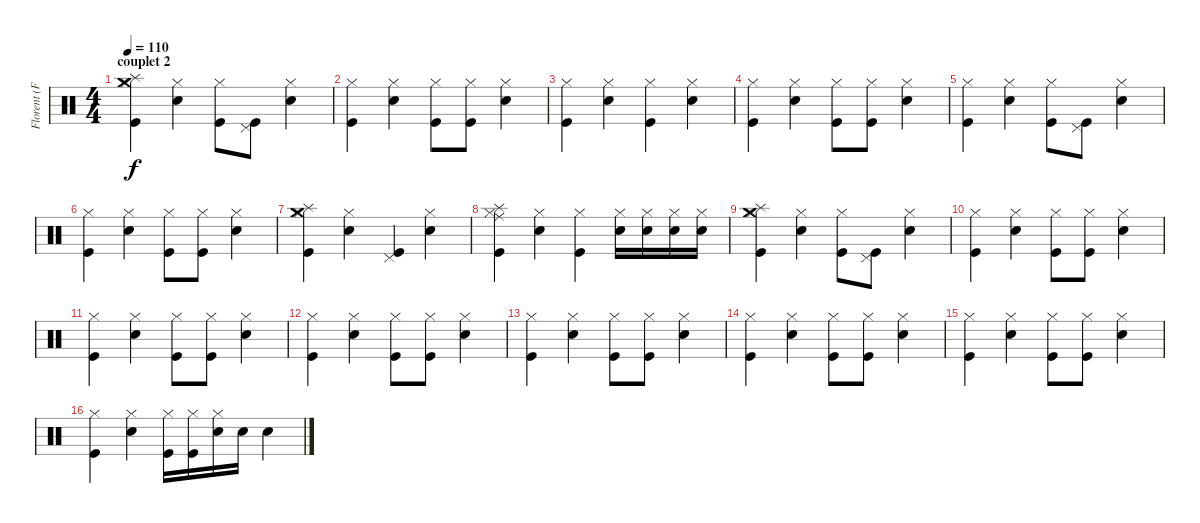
\track ("Florent (Fûts)" "Florent (F") {instrument percussion}
\staff {score}
\articulation defaults
\ts (4 4)
\section ("" "couplet 2")
\tempo 110
\clef neutral
\ks c
("Kick (hit)" "Crash medium (hit)" "Splash (hit)" "Hi-Hat (closed)").4{dy f} ("Snare (hit) 2" "Hi-Hat (closed)").4 ("Kick (hit)" "Hi-Hat (closed)").8 ("Kick (hit)" "Pedal Hi-Hat (hit)").8 ("Snare (hit) 2" "Hi-Hat (closed)").4 |
("Kick (hit)" "Hi-Hat (closed)").4 ("Snare (hit) 2" "Hi-Hat (closed)").4 ("Kick (hit)" "Hi-Hat (closed)").8 ("Kick (hit)" "Hi-Hat (closed)").8 ("Snare (hit) 2" "Hi-Hat (closed)").4 |
("Kick (hit)" "Hi-Hat (closed)").4 ("Snare (hit) 2" "Hi-Hat (closed)").4 ("Kick (hit)" "Hi-Hat (closed)").4 ("Snare (hit) 2" "Hi-Hat (closed)").4 |
("Kick (hit)" "Hi-Hat (closed)").4 ("Snare (hit) 2" "Hi-Hat (closed)").4 ("Kick (hit)" "Hi-Hat (closed)").8 ("Kick (hit)" "Hi-Hat (closed)").8 ("Snare (hit) 2" "Hi-Hat (closed)").4 |
("Kick (hit)" "Hi-Hat (closed)").4 ("Snare (hit) 2" "Hi-Hat (closed)").4 ("Kick (hit)" "Hi-Hat (closed)").8 ("Kick (hit)" "Pedal Hi-Hat (hit)").8 ("Snare (hit) 2" "Hi-Hat (closed)").4 |
("Kick (hit)" "Hi-Hat (closed)").4 ("Snare (hit) 2" "Hi-Hat (closed)").4 ("Kick (hit)" "Hi-Hat (closed)").8 ("Kick (hit)" "Hi-Hat (closed)").8 ("Snare (hit) 2" "Hi-Hat (closed)").4 |
("Kick (hit)" "Splash (hit)" "Crash medium (hit)" "Hi-Hat (closed)").4 ("Snare (hit) 2" "Hi-Hat (closed)").4 ("Kick (hit)" "Pedal Hi-Hat (hit)").4 ("Snare (hit) 2" "Hi-Hat (closed)").4 |
("Kick (hit)" "Splash (hit)" "Ride (middle)" "Hi-Hat (closed)").4 ("Snare (hit) 2" "Hi-Hat (closed)").4 ("Kick (hit)" "Hi-Hat (closed)").4 ("Snare (hit) 2" "Hi-Hat (closed)").16 ("Snare (hit) 2" "Hi-Hat (closed)").16 ("Snare (hit) 2" "Hi-Hat (closed)").16 ("Snare (hit) 2" "Hi-Hat (closed)").16 |
("Kick (hit)" "Splash (hit)" "Crash medium (hit)" "Hi-Hat (closed)").4 ("Snare (hit) 2" "Hi-Hat (closed)").4 ("Kick (hit)" "Hi-Hat (closed)").8 ("Kick (hit)" "Pedal Hi-Hat (hit)").8 ("Snare (hit) 2" "Hi-Hat (closed)").4 |
("Kick (hit)" "Hi-Hat (closed)").4 ("Snare (hit) 2" "Hi-Hat (closed)").4 ("Kick (hit)" "Hi-Hat (closed)").8 ("Kick (hit)" "Hi-Hat (closed)").8 ("Snare (hit) 2" "Hi-Hat (closed)").4 |
("Kick (hit)" "Hi-Hat (closed)").4 ("Snare (hit) 2" "Hi-Hat (closed)").4 ("Kick (hit)" "Hi-Hat (closed)").8 ("Kick (hit)" "Hi-Hat (closed)").8 ("Snare (hit) 2" "Hi-Hat (closed)").4 |
("Kick (hit)" "Hi-Hat (closed)").4 ("Snare (hit) 2" "Hi-Hat (closed)").4 ("Kick (hit)" "Hi-Hat (closed)").8 ("Kick (hit)" "Hi-Hat (closed)").8 ("Snare (hit) 2" "Hi-Hat (closed)").4 |
("Kick (hit)" "Hi-Hat (closed)").4 ("Snare (hit) 2" "Hi-Hat (closed)").4 ("Kick (hit)" "Hi-Hat (closed)").8 ("Kick (hit)" "Hi-Hat (closed)").8 ("Snare (hit) 2" "Hi-Hat (closed)").4 |
("Kick (hit)" "Hi-Hat (closed)").4 ("Snare (hit) 2" "Hi-Hat (closed)").4 ("Kick (hit)" "Hi-Hat (closed)").8 ("Kick (hit)" "Hi-Hat (closed)").8 ("Snare (hit) 2" "Hi-Hat (closed)").4 |
("Kick (hit)" "Hi-Hat (closed)").4 ("Snare (hit) 2" "Hi-Hat (closed)").4 ("Kick (hit)" "Hi-Hat (closed)").8 ("Kick (hit)" "Hi-Hat (closed)").8 ("Snare (hit) 2" "Hi-Hat (closed)").4 |
("Kick (hit)" "Hi-Hat (closed)").4 ("Snare (hit) 2" "Hi-Hat (closed)").4 ("Kick (hit)" "Hi-Hat (closed)").16 ("Kick (hit)" "Hi-Hat (closed)").16 ("Snare (hit) 2" "Hi-Hat (closed)").16 "Snare (hit) 2".16 "Snare (hit) 2".4
